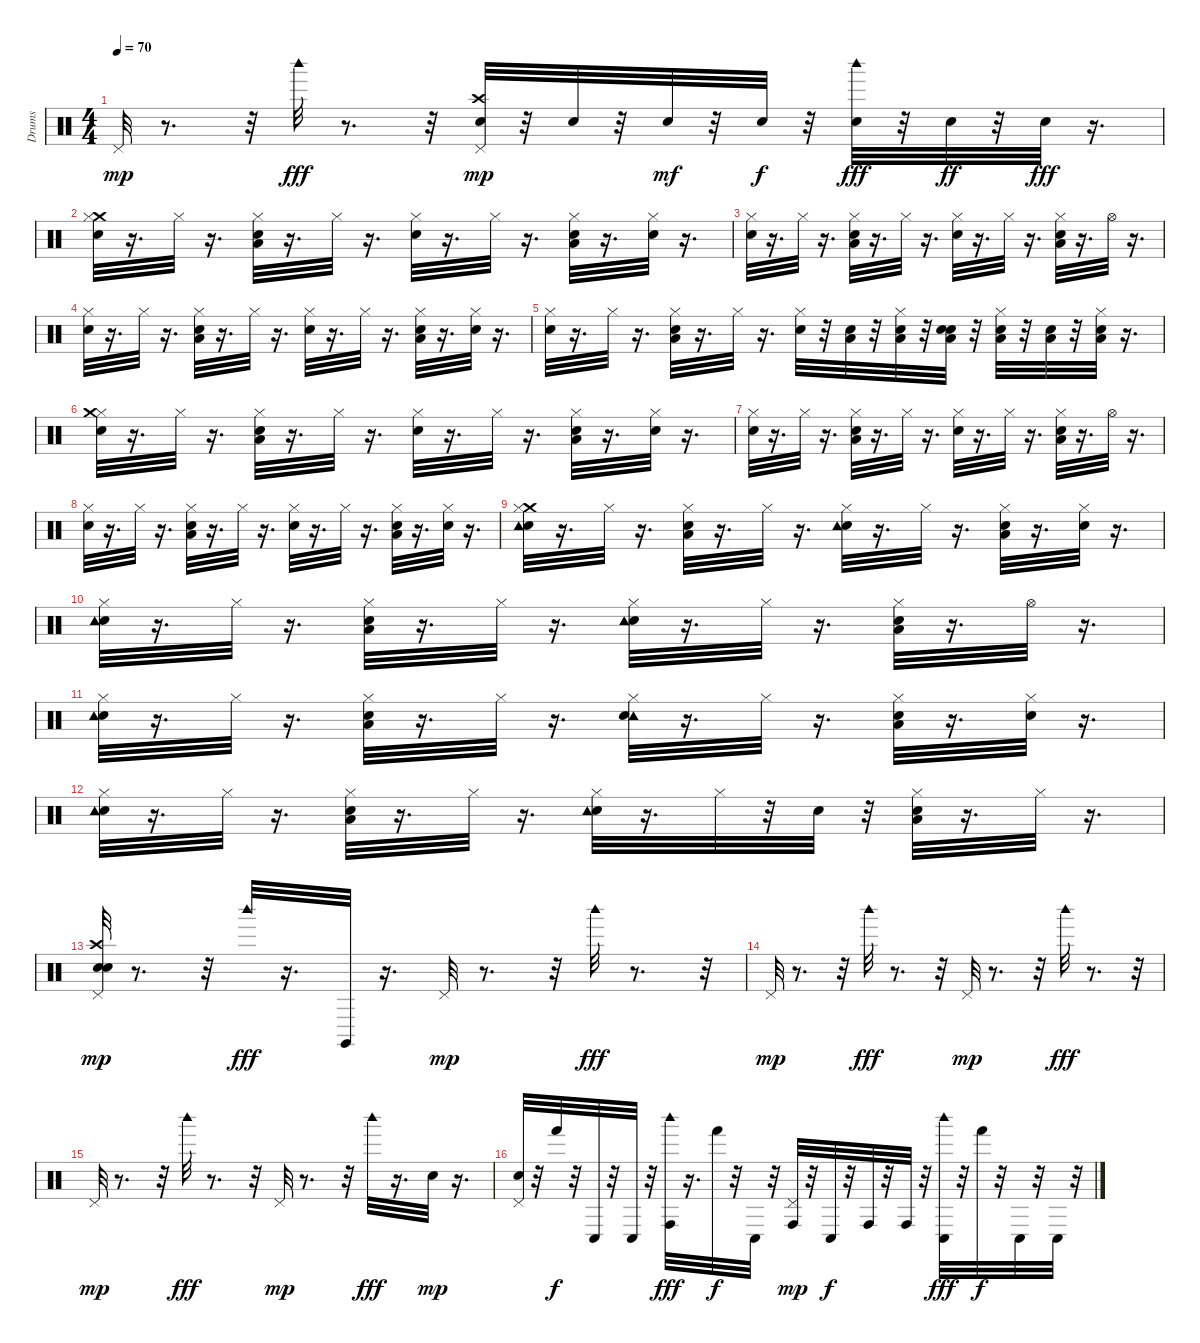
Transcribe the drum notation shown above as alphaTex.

\track ("Drums" "Drums") {instrument percussion}
\staff {score}
\articulation defaults
\ts (4 4)
\tempo 70
\clef neutral
\ks c "Pedal Hi-Hat (hit)".32{dy mp}
r.8{d} r.32 "Woodblock high (hit)".32{dy fff} r.8{d} r.32 ("Crash high (hit)" "Pedal Hi-Hat (hit)" "Snare (hit)").32{dy mp} r.32 "Snare (hit) 2".32 r.32 "Snare (hit) 2".32{dy mf} r.32 "Snare (hit) 2".32{dy f} r.32 ("Woodblock high (hit)" "Snare (hit) 2").32{dy fff} r.32 "Snare (hit) 2".32{dy ff} r.32 "Snare (hit) 2".32{dy fff} r.16{d} |
("Snare (hit)" "Crash medium (hit)" "Hi-Hat (closed)").32 r.16{d} "Hi-Hat (closed)".32 r.16{d} ("Snare (hit) 2" "Low Floor Tom (hit)" "Hi-Hat (closed)").32 r.16{d} "Hi-Hat (closed)".32 r.16{d} ("Hi-Hat (closed)" "Snare (hit)").32 r.16{d} "Hi-Hat (closed)".32 r.16{d} ("Snare (hit) 2" "Low Floor Tom (hit)" "Hi-Hat (closed)").32 r.16{d} ("Hi-Hat (closed)" "Snare (hit)").32 r.16{d} |
("Snare (hit)" "Hi-Hat (closed)").32 r.16{d} "Hi-Hat (closed)".32 r.16{d} ("Snare (hit) 2" "Low Floor Tom (hit)" "Hi-Hat (closed)").32 r.16{d} "Hi-Hat (closed)".32 r.16{d} ("Snare (hit)" "Hi-Hat (closed)").32 r.16{d} "Hi-Hat (closed)".32 r.16{d} ("Snare (hit) 2" "Low Floor Tom (hit)" "Hi-Hat (closed)").32 r.16{d} "Hi-Hat (open)".32 r.16{d} |
("Snare (hit)" "Hi-Hat (closed)").32 r.16{d} "Hi-Hat (closed)".32 r.16{d} ("Snare (hit) 2" "Low Floor Tom (hit)" "Hi-Hat (closed)").32 r.16{d} "Hi-Hat (closed)".32 r.16{d} ("Hi-Hat (closed)" "Snare (hit)").32 r.16{d} "Hi-Hat (closed)".32 r.16{d} ("Snare (hit) 2" "Low Floor Tom (hit)" "Hi-Hat (closed)").32 r.16{d} ("Snare (hit)" "Hi-Hat (closed)").32 r.16{d} |
("Snare (hit)" "Hi-Hat (closed)").32 r.16{d} "Hi-Hat (closed)".32 r.16{d} ("Snare (hit) 2" "Low Floor Tom (hit)" "Hi-Hat (closed)").32 r.16{d} "Hi-Hat (closed)".32 r.16{d} ("Snare (hit)" "Hi-Hat (closed)").32 r.32 ("Snare (hit) 2" "Low Floor Tom (hit)").32 r.32 ("Hi-Hat (closed)" "Snare (hit) 2" "Low Floor Tom (hit)").32 r.32 ("Snare (hit)" "Snare (hit) 2" "Low Floor Tom (hit)").32 r.32 ("Snare (hit) 2" "Low Floor Tom (hit)" "Hi-Hat (closed)").32 r.32 ("Snare (hit) 2" "Low Floor Tom (hit)").32 r.32 ("Hi-Hat (closed)" "Snare (hit) 2" "Low Floor Tom (hit)").32 r.16{d} |
("Hi-Hat (closed)" "Crash medium (hit)" "Snare (hit)").32 r.16{d} "Hi-Hat (closed)".32 r.16{d} ("Snare (hit) 2" "Low Floor Tom (hit)" "Hi-Hat (closed)").32 r.16{d} "Hi-Hat (closed)".32 r.16{d} ("Hi-Hat (closed)" "Snare (hit)").32 r.16{d} "Hi-Hat (closed)".32 r.16{d} ("Snare (hit) 2" "Low Floor Tom (hit)" "Hi-Hat (closed)").32 r.16{d} ("Hi-Hat (closed)" "Snare (hit)").32 r.16{d} |
("Snare (hit)" "Hi-Hat (closed)").32 r.16{d} "Hi-Hat (closed)".32 r.16{d} ("Snare (hit) 2" "Low Floor Tom (hit)" "Hi-Hat (closed)").32 r.16{d} "Hi-Hat (closed)".32 r.16{d} ("Snare (hit)" "Hi-Hat (closed)").32 r.16{d} "Hi-Hat (closed)".32 r.16{d} ("Snare (hit) 2" "Low Floor Tom (hit)" "Hi-Hat (closed)").32 r.16{d} "Hi-Hat (open)".32 r.16{d} |
("Snare (hit)" "Hi-Hat (closed)").32 r.16{d} "Hi-Hat (closed)".32 r.16{d} ("Snare (hit) 2" "Low Floor Tom (hit)" "Hi-Hat (closed)").32 r.16{d} "Hi-Hat (closed)".32 r.16{d} ("Hi-Hat (closed)" "Snare (hit)").32 r.16{d} "Hi-Hat (closed)".32 r.16{d} ("Snare (hit) 2" "Low Floor Tom (hit)" "Hi-Hat (closed)").32 r.16{d} ("Snare (hit)" "Hi-Hat (closed)").32 r.16{d} |
("Snare (hit)" "Crash medium (hit)" "Hi-Hat (closed)" "Tambourine (hit)").32 r.16{d} "Hi-Hat (closed)".32 r.16{d} ("Snare (hit) 2" "Low Floor Tom (hit)" "Hi-Hat (closed)").32 r.16{d} "Hi-Hat (closed)".32 r.16{d} ("Hi-Hat (closed)" "Snare (hit)" "Tambourine (hit)").32 r.16{d} "Hi-Hat (closed)".32 r.16{d} ("Snare (hit) 2" "Low Floor Tom (hit)" "Hi-Hat (closed)").32 r.16{d} ("Hi-Hat (closed)" "Snare (hit)").32 r.16{d} |
("Snare (hit)" "Hi-Hat (closed)" "Tambourine (hit)").32 r.16{d} "Hi-Hat (closed)".32 r.16{d} ("Snare (hit) 2" "Low Floor Tom (hit)" "Hi-Hat (closed)").32 r.16{d} "Hi-Hat (closed)".32 r.16{d} ("Snare (hit)" "Hi-Hat (closed)" "Tambourine (hit)").32 r.16{d} "Hi-Hat (closed)".32 r.16{d} ("Snare (hit) 2" "Low Floor Tom (hit)" "Hi-Hat (closed)").32 r.16{d} "Hi-Hat (open)".32 r.16{d} |
("Snare (hit)" "Hi-Hat (closed)" "Tambourine (hit)").32 r.16{d} "Hi-Hat (closed)".32 r.16{d} ("Snare (hit) 2" "Low Floor Tom (hit)" "Hi-Hat (closed)").32 r.16{d} "Hi-Hat (closed)".32 r.16{d} ("Hi-Hat (closed)" "Tambourine (hit)" "Snare (hit)").32 r.16{d} "Hi-Hat (closed)".32 r.16{d} ("Snare (hit) 2" "Low Floor Tom (hit)" "Hi-Hat (closed)").32 r.16{d} ("Snare (hit)" "Hi-Hat (closed)").32 r.16{d} |
("Snare (hit)" "Hi-Hat (closed)" "Tambourine (hit)").32 r.16{d} "Hi-Hat (closed)".32 r.16{d} ("Snare (hit) 2" "Low Floor Tom (hit)" "Hi-Hat (closed)").32 r.16{d} "Hi-Hat (closed)".32 r.16{d} ("Snare (hit)" "Hi-Hat (closed)" "Tambourine (hit)").32 r.16{d} "Hi-Hat (closed)".32 r.32 "Snare (hit)".32 r.32 ("Snare (hit) 2" "Low Floor Tom (hit)" "Hi-Hat (closed)").32 r.16{d} "Hi-Hat (closed)".32 r.16{d} |
("Snare (hit)" "Crash high (hit)" "Snare (hit)" "Pedal Hi-Hat (hit)").32{dy mp} r.8{d} r.32 "Woodblock high (hit)".32{dy fff} r.16{d} "Claves (hit)".32 r.16{d} "Pedal Hi-Hat (hit)".32{dy mp} r.8{d} r.32 "Woodblock high (hit)".32{dy fff} r.8{d} r.32 |
"Pedal Hi-Hat (hit)".32{dy mp} r.8{d} r.32 "Woodblock high (hit)".32{dy fff} r.8{d} r.32 "Pedal Hi-Hat (hit)".32{dy mp} r.8{d} r.32 "Woodblock high (hit)".32{dy fff} r.8{d} r.32 |
"Pedal Hi-Hat (hit)".32{dy mp} r.8{d} r.32 "Woodblock high (hit)".32{dy fff} r.8{d} r.32 "Pedal Hi-Hat (hit)".32{dy mp} r.8{d} r.32 "Woodblock high (hit)".32{dy fff} r.16{d} "Snare (hit)".32{dy mp} r.16{d} |
("Snare (hit)" "Pedal Hi-Hat (hit)").32 r.32 "Hand (hit)".32{dy f} r.32 "Conga low (hit)".32 r.32 "Conga low (hit)".32 r.32 ("Woodblock high (hit)" "Conga high (hit)").32{dy fff} r.16{d} "Hand (hit)".32{dy f} r.32 "Conga low (hit)".32 r.32 ("Pedal Hi-Hat (hit)" "Conga high (hit)").32{dy mp} r.32 "Conga low (hit)".32{dy f} r.32 "Conga high (hit)".32 r.32 "Conga high (hit)".32 r.32 ("Woodblock high (hit)" "Conga low (hit)").32{dy fff} r.32 "Hand (hit)".32{dy f} r.32 "Conga low (hit)".32 r.32 "Conga low (hit)".32 r.32
